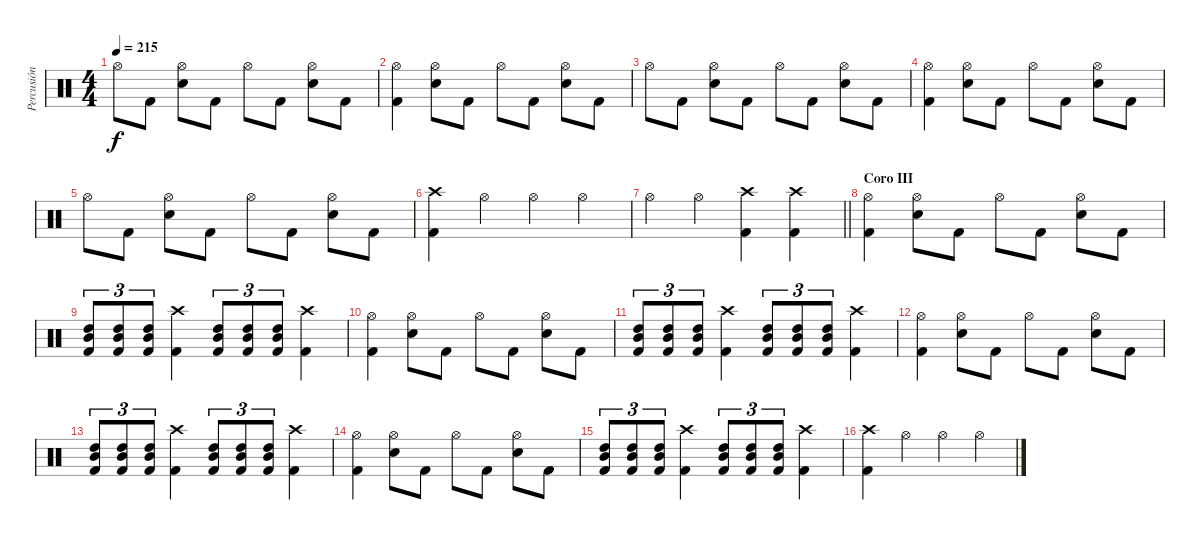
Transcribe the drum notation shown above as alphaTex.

\track ("Percusión" "Percusión") {instrument percussion}
\staff {score}
\articulation defaults
\ts (4 4)
\tempo 215
\clef neutral
\ks c "Hi-Hat (open)".8{dy f} "Kick (hit) 2".8
("Hi-Hat (open)" "Electric Snare (hit)").8 "Kick (hit) 2".8 "Hi-Hat (open)".8 "Kick (hit) 2".8 ("Hi-Hat (open)" "Electric Snare (hit)").8 "Kick (hit) 2".8 |
("Hi-Hat (open)" "Kick (hit) 2").4 ("Hi-Hat (open)" "Electric Snare (hit)").8 "Kick (hit) 2".8 "Hi-Hat (open)".8 "Kick (hit) 2".8 ("Hi-Hat (open)" "Electric Snare (hit)").8 "Kick (hit) 2".8 |
"Hi-Hat (open)".8 "Kick (hit) 2".8 ("Hi-Hat (open)" "Electric Snare (hit)").8 "Kick (hit) 2".8 "Hi-Hat (open)".8 "Kick (hit) 2".8 ("Hi-Hat (open)" "Electric Snare (hit)").8 "Kick (hit) 2".8 |
("Hi-Hat (open)" "Kick (hit) 2").4 ("Hi-Hat (open)" "Electric Snare (hit)").8 "Kick (hit) 2".8 "Hi-Hat (open)".8 "Kick (hit) 2".8 ("Hi-Hat (open)" "Electric Snare (hit)").8 "Kick (hit) 2".8 |
"Hi-Hat (open)".8 "Kick (hit) 2".8 ("Hi-Hat (open)" "Electric Snare (hit)").8 "Kick (hit) 2".8 "Hi-Hat (open)".8 "Kick (hit) 2".8 ("Hi-Hat (open)" "Electric Snare (hit)").8 "Kick (hit) 2".8 |
("Crash high (hit)" "Kick (hit) 2").4 "Hi-Hat (open)".4 "Hi-Hat (open)".4 "Hi-Hat (open)".4 |
\barLineRight lightlight "Hi-Hat (open)".4 "Hi-Hat (open)".4
("Crash high (hit)" "Kick (hit) 2").4 ("Crash high (hit)" "Kick (hit) 2").4 |
\section ("" "Coro III")
("Hi-Hat (open)" "Kick (hit) 2").4 ("Hi-Hat (open)" "Electric Snare (hit)").8 "Kick (hit) 2".8 "Hi-Hat (open)".8 "Kick (hit) 2".8 ("Hi-Hat (open)" "Electric Snare (hit)").8 "Kick (hit) 2".8 |
("High Tom (hit)" "Mid Tom (hit)" "Kick (hit) 2").8{tu (3 2)} ("High Tom (hit)" "Mid Tom (hit)" "Kick (hit) 2").8{tu (3 2)} ("High Tom (hit)" "Mid Tom (hit)" "Kick (hit) 2").8{tu (3 2)} ("Crash high (hit)" "Kick (hit) 2").4 ("High Tom (hit)" "Mid Tom (hit)" "Kick (hit) 2").8{tu (3 2)} ("High Tom (hit)" "Mid Tom (hit)" "Kick (hit) 2").8{tu (3 2)} ("High Tom (hit)" "Mid Tom (hit)" "Kick (hit) 2").8{tu (3 2)} ("Crash high (hit)" "Kick (hit) 2").4 |
("Hi-Hat (open)" "Kick (hit) 2").4 ("Hi-Hat (open)" "Electric Snare (hit)").8 "Kick (hit) 2".8 "Hi-Hat (open)".8 "Kick (hit) 2".8 ("Hi-Hat (open)" "Electric Snare (hit)").8 "Kick (hit) 2".8 |
("High Tom (hit)" "Mid Tom (hit)" "Kick (hit) 2").8{tu (3 2)} ("High Tom (hit)" "Mid Tom (hit)" "Kick (hit) 2").8{tu (3 2)} ("High Tom (hit)" "Mid Tom (hit)" "Kick (hit) 2").8{tu (3 2)} ("Crash high (hit)" "Kick (hit) 2").4 ("High Tom (hit)" "Mid Tom (hit)" "Kick (hit) 2").8{tu (3 2)} ("High Tom (hit)" "Mid Tom (hit)" "Kick (hit) 2").8{tu (3 2)} ("High Tom (hit)" "Mid Tom (hit)" "Kick (hit) 2").8{tu (3 2)} ("Crash high (hit)" "Kick (hit) 2").4 |
("Hi-Hat (open)" "Kick (hit) 2").4 ("Hi-Hat (open)" "Electric Snare (hit)").8 "Kick (hit) 2".8 "Hi-Hat (open)".8 "Kick (hit) 2".8 ("Hi-Hat (open)" "Electric Snare (hit)").8 "Kick (hit) 2".8 |
("High Tom (hit)" "Mid Tom (hit)" "Kick (hit) 2").8{tu (3 2)} ("High Tom (hit)" "Mid Tom (hit)" "Kick (hit) 2").8{tu (3 2)} ("High Tom (hit)" "Mid Tom (hit)" "Kick (hit) 2").8{tu (3 2)} ("Crash high (hit)" "Kick (hit) 2").4 ("High Tom (hit)" "Mid Tom (hit)" "Kick (hit) 2").8{tu (3 2)} ("High Tom (hit)" "Mid Tom (hit)" "Kick (hit) 2").8{tu (3 2)} ("High Tom (hit)" "Mid Tom (hit)" "Kick (hit) 2").8{tu (3 2)} ("Crash high (hit)" "Kick (hit) 2").4 |
("Hi-Hat (open)" "Kick (hit) 2").4 ("Hi-Hat (open)" "Electric Snare (hit)").8 "Kick (hit) 2".8 "Hi-Hat (open)".8 "Kick (hit) 2".8 ("Hi-Hat (open)" "Electric Snare (hit)").8 "Kick (hit) 2".8 |
("High Tom (hit)" "Mid Tom (hit)" "Kick (hit) 2").8{tu (3 2)} ("High Tom (hit)" "Mid Tom (hit)" "Kick (hit) 2").8{tu (3 2)} ("High Tom (hit)" "Mid Tom (hit)" "Kick (hit) 2").8{tu (3 2)} ("Crash high (hit)" "Kick (hit) 2").4 ("High Tom (hit)" "Mid Tom (hit)" "Kick (hit) 2").8{tu (3 2)} ("High Tom (hit)" "Mid Tom (hit)" "Kick (hit) 2").8{tu (3 2)} ("High Tom (hit)" "Mid Tom (hit)" "Kick (hit) 2").8{tu (3 2)} ("Crash high (hit)" "Kick (hit) 2").4 |
("Crash high (hit)" "Kick (hit) 2").4 "Hi-Hat (open)".4 "Hi-Hat (open)".4 "Hi-Hat (open)".4
